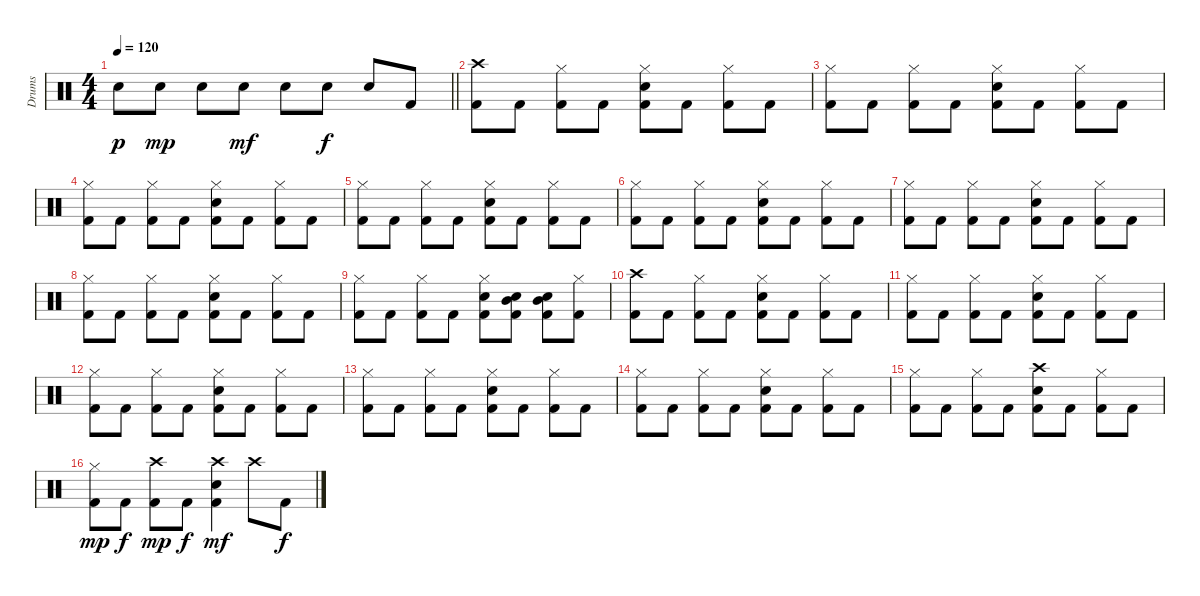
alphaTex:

\track ("Drums" "Drums") {instrument percussion}
\staff {score}
\articulation defaults
\ts (4 4)
\tempo 120
\clef neutral
\barLineRight lightlight
\ks c "Electric Snare (hit)".8{dy p} "Electric Snare (hit)".8{dy mp} "Electric Snare (hit)".8 "Electric Snare (hit)".8{dy mf} "Electric Snare (hit)".8 "Electric Snare (hit)".8{dy f} "Electric Snare (hit)".8 "Kick (hit) 2".8
|
("Crash high (hit)" "Kick (hit) 2").8 "Kick (hit) 2".8 ("Hi-Hat (closed)" "Kick (hit) 2").8 "Kick (hit) 2".8 ("Hi-Hat (closed)" "Electric Snare (hit)" "Kick (hit) 2").8 "Kick (hit) 2".8 ("Hi-Hat (closed)" "Kick (hit) 2").8 "Kick (hit) 2".8 |
("Hi-Hat (closed)" "Kick (hit) 2").8 "Kick (hit) 2".8 ("Hi-Hat (closed)" "Kick (hit) 2").8 "Kick (hit) 2".8 ("Hi-Hat (closed)" "Electric Snare (hit)" "Kick (hit) 2").8 "Kick (hit) 2".8 ("Hi-Hat (closed)" "Kick (hit) 2").8 "Kick (hit) 2".8 |
("Hi-Hat (closed)" "Kick (hit) 2").8 "Kick (hit) 2".8 ("Hi-Hat (closed)" "Kick (hit) 2").8 "Kick (hit) 2".8 ("Hi-Hat (closed)" "Electric Snare (hit)" "Kick (hit) 2").8 "Kick (hit) 2".8 ("Hi-Hat (closed)" "Kick (hit) 2").8 "Kick (hit) 2".8 |
("Hi-Hat (closed)" "Kick (hit) 2").8 "Kick (hit) 2".8 ("Hi-Hat (closed)" "Kick (hit) 2").8 "Kick (hit) 2".8 ("Hi-Hat (closed)" "Electric Snare (hit)" "Kick (hit) 2").8 "Kick (hit) 2".8 ("Hi-Hat (closed)" "Kick (hit) 2").8 "Kick (hit) 2".8 |
("Hi-Hat (closed)" "Kick (hit) 2").8 "Kick (hit) 2".8 ("Hi-Hat (closed)" "Kick (hit) 2").8 "Kick (hit) 2".8 ("Hi-Hat (closed)" "Electric Snare (hit)" "Kick (hit) 2").8 "Kick (hit) 2".8 ("Hi-Hat (closed)" "Kick (hit) 2").8 "Kick (hit) 2".8 |
("Hi-Hat (closed)" "Kick (hit) 2").8 "Kick (hit) 2".8 ("Hi-Hat (closed)" "Kick (hit) 2").8 "Kick (hit) 2".8 ("Hi-Hat (closed)" "Electric Snare (hit)" "Kick (hit) 2").8 "Kick (hit) 2".8 ("Hi-Hat (closed)" "Kick (hit) 2").8 "Kick (hit) 2".8 |
("Hi-Hat (closed)" "Kick (hit) 2").8 "Kick (hit) 2".8 ("Hi-Hat (closed)" "Kick (hit) 2").8 "Kick (hit) 2".8 ("Hi-Hat (closed)" "Electric Snare (hit)" "Kick (hit) 2").8 "Kick (hit) 2".8 ("Hi-Hat (closed)" "Kick (hit) 2").8 "Kick (hit) 2".8 |
("Hi-Hat (closed)" "Kick (hit) 2").8 "Kick (hit) 2".8 ("Hi-Hat (closed)" "Kick (hit) 2").8 "Kick (hit) 2".8 ("Hi-Hat (closed)" "Electric Snare (hit)" "Kick (hit) 2").8 ("Mid Tom (hit)" "Electric Snare (hit)" "Kick (hit) 2").8 ("Mid Tom (hit)" "Electric Snare (hit)" "Kick (hit) 2").8 ("Hi-Hat (closed)" "Kick (hit) 2").8 |
("Crash high (hit)" "Kick (hit) 2").8 "Kick (hit) 2".8 ("Hi-Hat (closed)" "Kick (hit) 2").8 "Kick (hit) 2".8 ("Hi-Hat (closed)" "Electric Snare (hit)" "Kick (hit) 2").8 "Kick (hit) 2".8 ("Hi-Hat (closed)" "Kick (hit) 2").8 "Kick (hit) 2".8 |
("Hi-Hat (closed)" "Kick (hit) 2").8 "Kick (hit) 2".8 ("Hi-Hat (closed)" "Kick (hit) 2").8 "Kick (hit) 2".8 ("Hi-Hat (closed)" "Electric Snare (hit)" "Kick (hit) 2").8 "Kick (hit) 2".8 ("Hi-Hat (closed)" "Kick (hit) 2").8 "Kick (hit) 2".8 |
("Hi-Hat (closed)" "Kick (hit) 2").8 "Kick (hit) 2".8 ("Hi-Hat (closed)" "Kick (hit) 2").8 "Kick (hit) 2".8 ("Hi-Hat (closed)" "Electric Snare (hit)" "Kick (hit) 2").8 "Kick (hit) 2".8 ("Hi-Hat (closed)" "Kick (hit) 2").8 "Kick (hit) 2".8 |
("Hi-Hat (closed)" "Kick (hit) 2").8 "Kick (hit) 2".8 ("Hi-Hat (closed)" "Kick (hit) 2").8 "Kick (hit) 2".8 ("Hi-Hat (closed)" "Electric Snare (hit)" "Kick (hit) 2").8 "Kick (hit) 2".8 ("Hi-Hat (closed)" "Kick (hit) 2").8 "Kick (hit) 2".8 |
("Hi-Hat (closed)" "Kick (hit) 2").8 "Kick (hit) 2".8 ("Hi-Hat (closed)" "Kick (hit) 2").8 "Kick (hit) 2".8 ("Hi-Hat (closed)" "Electric Snare (hit)" "Kick (hit) 2").8 "Kick (hit) 2".8 ("Hi-Hat (closed)" "Kick (hit) 2").8 "Kick (hit) 2".8 |
("Hi-Hat (closed)" "Kick (hit) 2").8 "Kick (hit) 2".8 ("Hi-Hat (closed)" "Kick (hit) 2").8 "Kick (hit) 2".8 ("Crash high (hit)" "Electric Snare (hit)" "Kick (hit) 2").8 "Kick (hit) 2".8 ("Hi-Hat (closed)" "Kick (hit) 2").8 "Kick (hit) 2".8 |
("Hi-Hat (closed)" "Kick (hit) 2").8{dy mp} "Kick (hit) 2".8{dy f} ("Crash high (hit)" "Kick (hit) 2").8{dy mp} "Kick (hit) 2".8{dy f} ("Crash high (hit)" "Electric Snare (hit)" "Kick (hit) 2").4{dy mf} "Crash high (hit)".8 "Kick (hit) 2".8{dy f}
